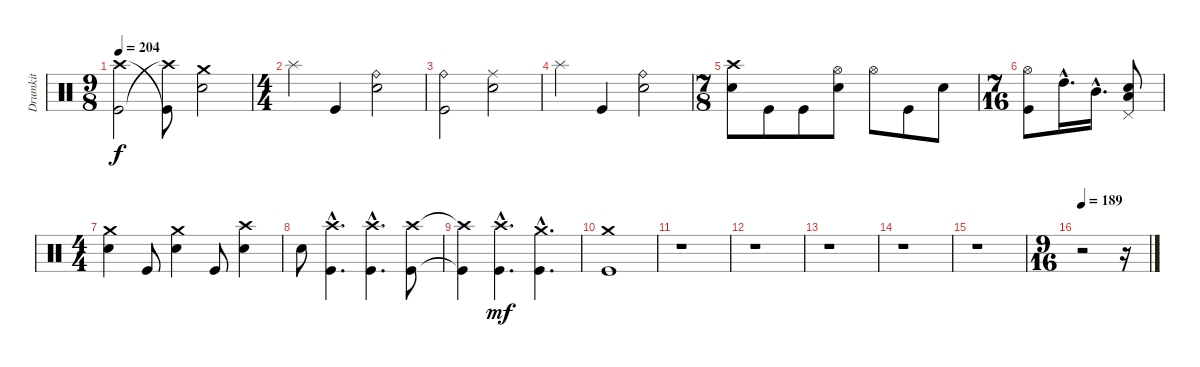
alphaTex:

\track ("Drumkit" "Drumkit") {instrument percussion}
\staff {score}
\articulation defaults
\ts (9 8)
\tempo 204
\clef neutral
\ks c
("Kick (hit)" "Crash high (hit)").2{dy f} ("Crash high (hit)"{t} "Kick (hit)"{t}).8 ("Snare (hit) 2" "Crash medium (hit)").2 |
\ts (4 4)
"Splash (hit)".4 "Kick (hit)".4 ("Snare (hit) 2" "Ride (bell)").2 |
("Kick (hit)" "Ride (bell)").2 ("Snare (hit) 2" "Ride (middle)").2 |
"Splash (hit)".4 "Kick (hit)".4 ("Snare (hit) 2" "Ride (bell)").2 |
\ts (7 8)
("Snare (hit) 2" "Crash high (hit)").8 "Kick (hit)".8 "Kick (hit)".8 ("Snare (hit) 2" "Hi-Hat (open)").8 "Hi-Hat (open)".8 "Kick (hit)".8 "Snare (hit) 2".8 |
\ts (7 16)
("Kick (hit)" "Hi-Hat (open)").8 "High Tom (hit)"{hac}.16{d} "Mid Tom (hit)"{hac}.16{d} ("Snare (hit) 2" "Low Tom (hit)" "Pedal Hi-Hat (hit)").8 |
\ts (4 4)
("Snare (hit) 2" "Crash medium (hit)").4 "Kick (hit)".8 ("Snare (hit) 2" "Crash medium (hit)").4 "Kick (hit)".8 ("Snare (hit) 2" "Crash high (hit)").4 |
"Snare (hit) 2".8 ("Kick (hit)"{hac} "Crash high (hit)"{hac}).4{d} ("Kick (hit)"{hac} "Crash high (hit)"{hac}).4{d} ("Kick (hit)" "Crash high (hit)").8 |
("Kick (hit)"{t} "Crash high (hit)"{t}).4 ("Crash high (hit)"{hac} "Kick (hit)"{hac}).4{d dy mf} ("Kick (hit)"{hac} "Crash medium (hit)"{hac}).4{d} |
("Crash medium (hit)" "Kick (hit)").1 |
r.1 |
r.1 |
r.1 |
r.1 |
r.1 |
\ts (9 16)
\tempo 189
r.2 r.16
